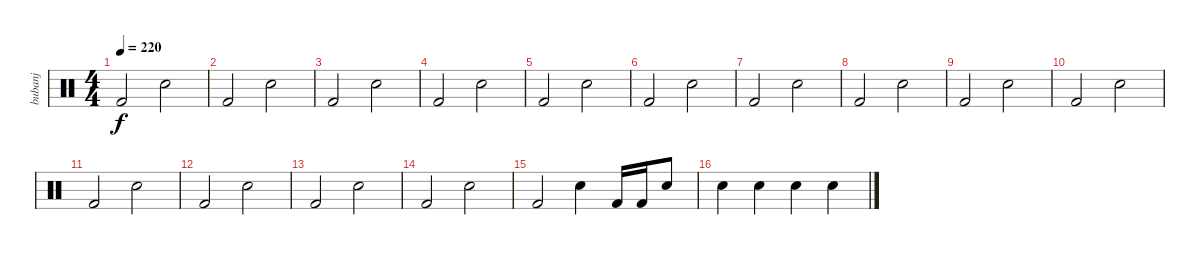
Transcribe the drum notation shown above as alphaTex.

\track ("bubanj" "bubanj") {instrument percussion}
\staff {score}
\articulation defaults
\ts (4 4)
\tempo 220
\clef neutral
\ks c "Kick (hit) 2".2{dy f} "Snare (hit) 2".2
|
"Kick (hit) 2".2 "Snare (hit) 2".2 |
"Kick (hit) 2".2 "Snare (hit) 2".2 |
"Kick (hit) 2".2 "Snare (hit) 2".2 |
"Kick (hit) 2".2 "Snare (hit) 2".2 |
"Kick (hit) 2".2 "Snare (hit) 2".2 |
"Kick (hit) 2".2 "Snare (hit) 2".2 |
"Kick (hit) 2".2 "Snare (hit) 2".2 |
"Kick (hit) 2".2 "Snare (hit) 2".2 |
"Kick (hit) 2".2 "Snare (hit) 2".2 |
"Kick (hit) 2".2 "Snare (hit) 2".2 |
"Kick (hit) 2".2 "Snare (hit) 2".2 |
"Kick (hit) 2".2 "Snare (hit) 2".2 |
"Kick (hit) 2".2 "Snare (hit) 2".2 |
"Kick (hit) 2".2 "Snare (hit) 2".4 "Kick (hit) 2".16 "Kick (hit) 2".16 "Snare (hit) 2".8 |
"Snare (hit) 2".4 "Snare (hit) 2".4 "Snare (hit) 2".4 "Snare (hit) 2".4
